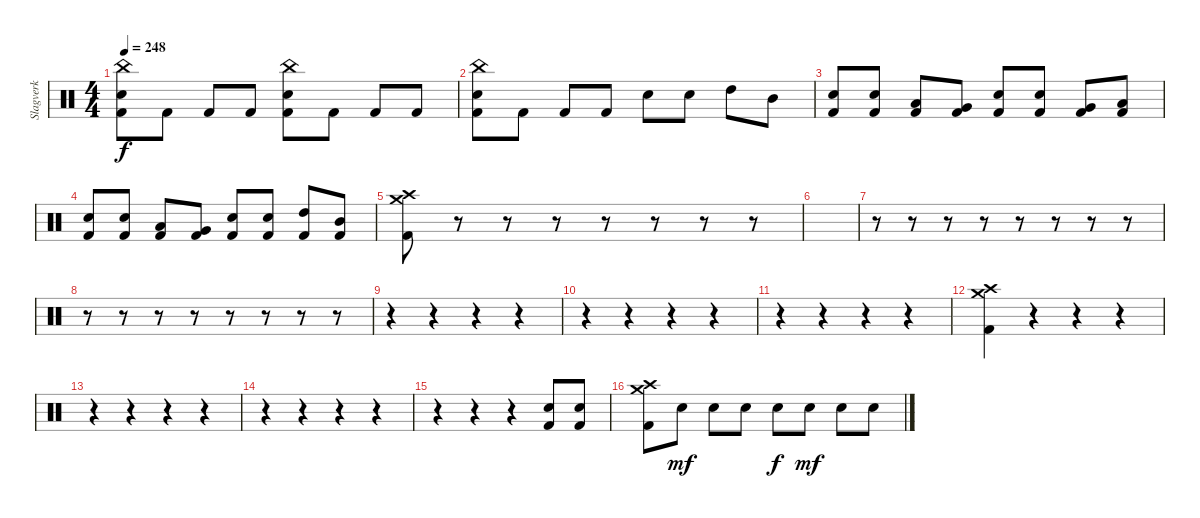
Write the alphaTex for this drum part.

\track ("Slagverk" "Slagverk") {instrument percussion}
\staff {score}
\articulation defaults
\ts (4 4)
\tempo 248
\clef neutral
\ks c
("China (hit)" "Snare (hit) 2" "Kick (hit) 2").8{dy f} "Kick (hit) 2".8 "Kick (hit) 2".8 "Kick (hit) 2".8 ("China (hit)" "Snare (hit) 2" "Kick (hit) 2").8 "Kick (hit) 2".8 "Kick (hit) 2".8 "Kick (hit) 2".8 |
("China (hit)" "Snare (hit) 2" "Kick (hit) 2").8 "Kick (hit) 2".8 "Kick (hit) 2".8 "Kick (hit) 2".8 "Snare (hit) 2".8 "Snare (hit) 2".8 "High Tom (hit)".8 "Mid Tom (hit)".8 |
("Snare (hit) 2" "Kick (hit) 2").8 ("Snare (hit) 2" "Kick (hit) 2").8 ("Low Tom (hit)" "Kick (hit) 2").8 ("Very Low Tom (hit)" "Kick (hit) 2").8 ("Snare (hit) 2" "Kick (hit) 2").8 ("Snare (hit) 2" "Kick (hit) 2").8 ("Very Low Tom (hit)" "Kick (hit) 2").8 ("Low Floor Tom (hit)" "Kick (hit) 2").8 |
("Snare (hit) 2" "Kick (hit) 2").8 ("Snare (hit) 2" "Kick (hit) 2").8 ("Low Tom (hit)" "Kick (hit) 2").8 ("Very Low Tom (hit)" "Kick (hit) 2").8 ("Snare (hit) 2" "Kick (hit) 2").8 ("Snare (hit) 2" "Kick (hit) 2").8 ("High Tom (hit)" "Kick (hit) 2").8 ("Mid Tom (hit)" "Kick (hit) 2").8 |
("Crash medium (hit)" "Crash high (hit)" "Kick (hit) 2").8 r.8 r.8 r.8 r.8 r.8 r.8 r.8 |
|
r.8 r.8 r.8 r.8 r.8 r.8 r.8 r.8 |
r.8 r.8 r.8 r.8 r.8 r.8 r.8 r.8 |
r.4 r.4 r.4 r.4 |
r.4 r.4 r.4 r.4 |
r.4 r.4 r.4 r.4 |
("Crash medium (hit)" "Crash high (hit)" "Kick (hit) 2").4 r.4 r.4 r.4 |
r.4 r.4 r.4 r.4 |
r.4 r.4 r.4 r.4 |
r.4 r.4 r.4 ("Snare (hit) 2" "Kick (hit) 2").8 ("Snare (hit) 2" "Kick (hit) 2").8 |
("Crash medium (hit)" "Crash high (hit)" "Kick (hit) 2").8 "Snare (hit) 2".8{dy mf} "Snare (hit) 2".8 "Snare (hit) 2".8 "Snare (hit) 2".8{dy f} "Snare (hit) 2".8{dy mf} "Snare (hit) 2".8 "Snare (hit) 2".8
